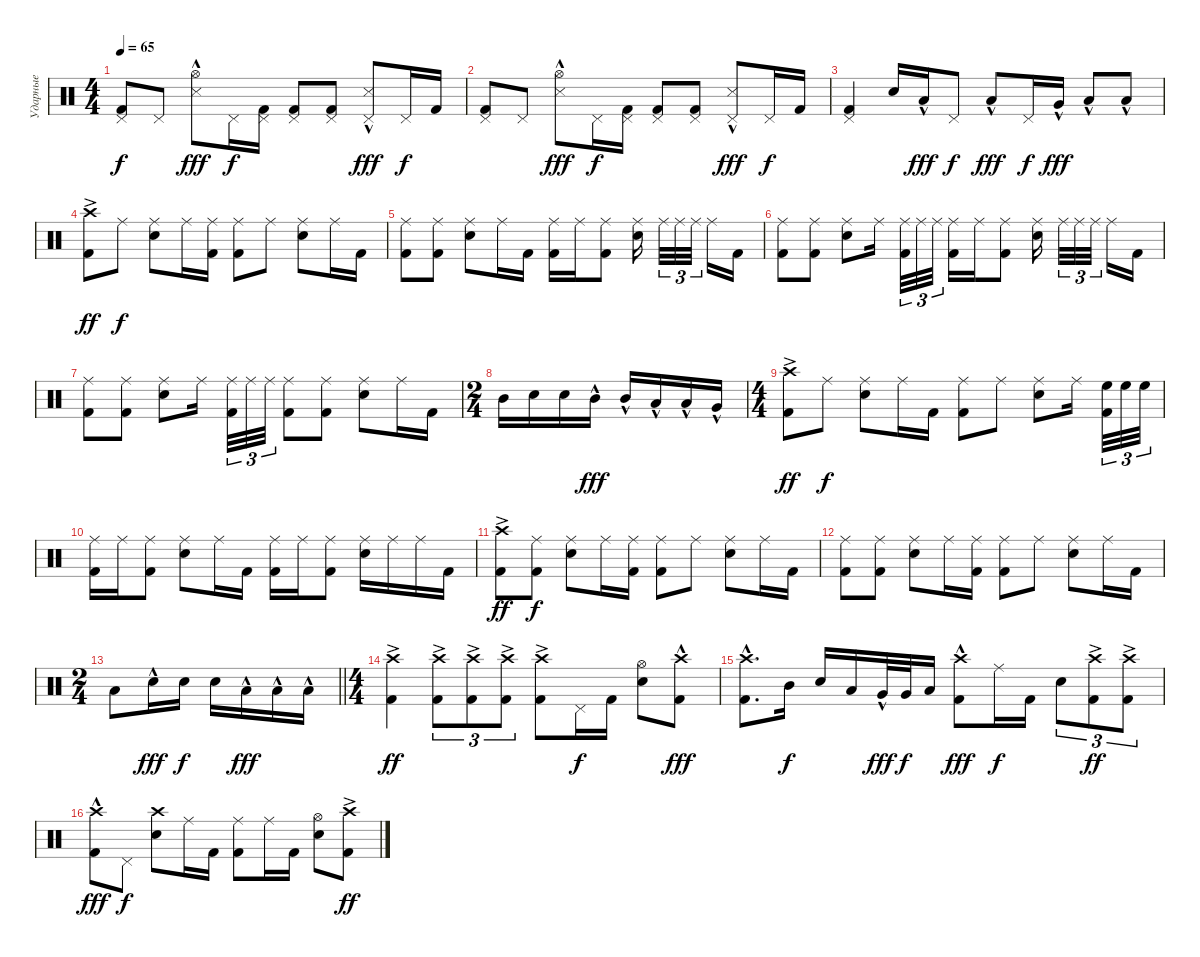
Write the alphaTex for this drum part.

\track ("Ударные" "Ударные") {instrument percussion}
\staff {score}
\articulation defaults
\ts (4 4)
\tempo 65
\clef neutral
\ks c
("Kick (hit) 2" "Pedal Hi-Hat (hit)").8{dy f} "Pedal Hi-Hat (hit)".8 ("Snare (side stick) 3"{hac} "Hi-Hat (open)").8{dy fff} "Pedal Hi-Hat (hit)".16{dy f} ("Kick (hit) 2" "Pedal Hi-Hat (hit)").16 ("Kick (hit) 2" "Pedal Hi-Hat (hit)").8 ("Kick (hit) 2" "Pedal Hi-Hat (hit)").8 ("Snare (side stick) 3"{hac} "Pedal Hi-Hat (hit)").8{dy fff} "Pedal Hi-Hat (hit)".16{dy f} "Kick (hit) 2".16 |
("Kick (hit) 2" "Pedal Hi-Hat (hit)").8 "Pedal Hi-Hat (hit)".8 ("Snare (side stick) 3"{hac} "Hi-Hat (open)").8{dy fff} "Pedal Hi-Hat (hit)".16{dy f} ("Kick (hit) 2" "Pedal Hi-Hat (hit)").16 ("Kick (hit) 2" "Pedal Hi-Hat (hit)").8 ("Kick (hit) 2" "Pedal Hi-Hat (hit)").8 ("Snare (side stick) 3"{hac} "Pedal Hi-Hat (hit)").8{dy fff} "Pedal Hi-Hat (hit)".16{dy f} "Kick (hit) 2".16 |
("Kick (hit) 2" "Pedal Hi-Hat (hit)").4 "Snare (hit) 2".16 "Low Tom (hit)"{hac}.16{dy fff} "Pedal Hi-Hat (hit)".8{dy f} "Low Tom (hit)"{hac}.8{dy fff} "Pedal Hi-Hat (hit)".16{dy f} "Very Low Tom (hit)"{hac}.16{dy fff} "Low Floor Tom (hit)"{hac}.8 "Low Floor Tom (hit)"{hac}.8 |
("Kick (hit) 2" "Crash high (hit)"{ac}).8{dy ff} "Ride (middle)".8{dy f} ("Snare (hit) 2" "Ride (middle)").8 "Ride (middle)".16 ("Kick (hit) 2" "Ride (middle)").16 ("Kick (hit) 2" "Ride (middle)").8 "Ride (middle)".8 ("Snare (hit) 2" "Ride (middle)").8 "Ride (middle)".16 "Kick (hit) 2".16 |
("Kick (hit) 2" "Ride (middle)").8 ("Kick (hit) 2" "Ride (middle)").8 ("Snare (hit) 2" "Ride (middle)").8 "Ride (middle)".16 "Kick (hit) 2".16 ("Kick (hit) 2" "Ride (middle)").16 "Ride (middle)".16 ("Kick (hit) 2" "Ride (middle)").8 ("Snare (hit) 2" "Ride (middle)").16{beam splitsecondary} "Ride (middle)".32{tu (3 2)} "Ride (middle)".32{tu (3 2)} "Ride (middle)".32{tu (3 2) beam splitsecondary} "Ride (middle)".16 "Kick (hit) 2".16 |
("Kick (hit) 2" "Ride (middle)").8 ("Kick (hit) 2" "Ride (middle)").8 ("Snare (hit) 2" "Ride (middle)").8 "Ride (middle)".16{beam splitsecondary} ("Kick (hit) 2" "Ride (middle)").32{tu (3 2)} "Ride (middle)".32{tu (3 2)} "Ride (middle)".32{tu (3 2)} ("Kick (hit) 2" "Ride (middle)").16 "Ride (middle)".16 ("Kick (hit) 2" "Ride (middle)").8 ("Snare (hit) 2" "Ride (middle)").16{beam splitsecondary} "Ride (middle)".32{tu (3 2)} "Ride (middle)".32{tu (3 2)} "Ride (middle)".32{tu (3 2) beam splitsecondary} "Ride (middle)".16 "Kick (hit) 2".16 |
("Kick (hit) 2" "Ride (middle)").8 ("Kick (hit) 2" "Ride (middle)").8 ("Snare (hit) 2" "Ride (middle)").8 "Ride (middle)".16{beam splitsecondary} ("Kick (hit) 2" "Ride (middle)").32{tu (3 2)} "Ride (middle)".32{tu (3 2)} "Ride (middle)".32{tu (3 2)} ("Kick (hit) 2" "Ride (middle)").8 ("Kick (hit) 2" "Ride (middle)").8 ("Snare (hit) 2" "Ride (middle)").8 "Ride (middle)".16 "Kick (hit) 2".16 |
\ts (2 4)
"Mid Tom (hit)".16 "Snare (hit) 2".16 "Snare (hit) 2".16 "Mid Tom (hit)"{hac}.16{dy fff} "Mid Tom (hit)"{hac}.16 "Low Tom (hit)"{hac}.16 "Low Tom (hit)"{hac}.16 "Very Low Tom (hit)"{hac}.16 |
\ts (4 4)
("Kick (hit) 2" "Crash high (hit)"{ac}).8{dy ff} "Ride (middle)".8{dy f} ("Snare (hit) 2" "Ride (middle)").8 "Ride (middle)".16 "Kick (hit) 2".16 ("Kick (hit) 2" "Ride (middle)").8 "Ride (middle)".8 ("Snare (hit) 2" "Ride (middle)").8 "Ride (middle)".16{beam splitsecondary} ("Kick (hit) 2" "High Floor Tom (hit)").32{tu (3 2)} "High Floor Tom (hit)".32{tu (3 2)} "High Floor Tom (hit)".32{tu (3 2)} |
("Kick (hit) 2" "Ride (middle)").16 "Ride (middle)".16 ("Kick (hit) 2" "Ride (middle)").8 ("Snare (hit) 2" "Ride (middle)").8 "Ride (middle)".16 "Kick (hit) 2".16 ("Kick (hit) 2" "Ride (middle)").16 "Ride (middle)".16 ("Kick (hit) 2" "Ride (middle)").8 ("Snare (hit) 2" "Ride (middle)").16 "Ride (middle)".16 "Ride (middle)".16 "Kick (hit) 2".16 |
("Kick (hit) 2" "Crash high (hit)"{ac}).8{dy ff} ("Kick (hit) 2" "Ride (middle)").8{dy f} ("Snare (hit) 2" "Ride (middle)").8 "Ride (middle)".16 ("Kick (hit) 2" "Ride (middle)").16 ("Kick (hit) 2" "Ride (middle)").8 "Ride (middle)".8 ("Snare (hit) 2" "Ride (middle)").8 "Ride (middle)".16 "Kick (hit) 2".16 |
("Kick (hit) 2" "Ride (middle)").8 ("Kick (hit) 2" "Ride (middle)").8 ("Snare (hit) 2" "Ride (middle)").8 "Ride (middle)".16 ("Kick (hit) 2" "Ride (middle)").16 ("Kick (hit) 2" "Ride (middle)").8 "Ride (middle)".8 ("Snare (hit) 2" "Ride (middle)").8 "Ride (middle)".16 "Kick (hit) 2".16 |
\ts (2 4)
\barLineRight lightlight "Low Tom (hit)".8 "Electric Snare (hit)"{hac}.16{dy fff} "Snare (hit) 2".16{dy f} "Snare (hit) 2".16 "Low Tom (hit)"{hac}.16{dy fff} "Low Tom (hit)"{hac}.16 "Low Tom (hit)"{hac}.16
|
\ts (4 4)
("Kick (hit) 2" "Crash high (hit)"{ac}).4{dy ff} ("Kick (hit) 2" "Crash high (hit)"{ac}).8{tu (3 2)} ("Kick (hit) 2" "Crash high (hit)"{ac}).8{tu (3 2)} ("Kick (hit) 2" "Crash high (hit)"{ac}).8{tu (3 2)} ("Kick (hit) 2" "Crash high (hit)"{ac}).8 "Pedal Hi-Hat (hit)".16{dy f} "Kick (hit) 2".16 ("Snare (hit) 2" "Hi-Hat (open)").8 ("Kick (hit) 2" "Crash high (hit)"{hac}).8{dy fff} |
("Kick (hit) 2" "Crash high (hit)"{hac}).8{d} "Mid Tom (hit)".16{dy f} "Snare (hit) 2".16 "Low Tom (hit)".16 "Very Low Tom (hit)"{hac}.32{dy fff} "Very Low Tom (hit)".32{dy f} "Low Floor Tom (hit)".16 ("Kick (hit) 2" "Crash high (hit)"{hac}).8{dy fff} "Ride (middle)".16{dy f} "Kick (hit) 2".16 "Snare (hit) 2".8{tu (3 2)} ("Kick (hit) 2" "Crash high (hit)"{ac}).8{tu (3 2) dy ff} ("Kick (hit) 2" "Crash high (hit)"{ac}).8{tu (3 2)} |
("Kick (hit) 2" "Crash high (hit)"{hac}).8{dy fff} "Pedal Hi-Hat (hit)".8{dy f} ("Snare (hit) 2" "Crash high (hit)").8 "Ride (middle)".16 "Kick (hit) 2".16 ("Kick (hit) 2" "Ride (middle)").8 "Ride (middle)".16 "Kick (hit) 2".16 ("Snare (hit) 2" "Hi-Hat (open)").8 ("Kick (hit) 2" "Crash high (hit)"{ac}).8{dy ff}
